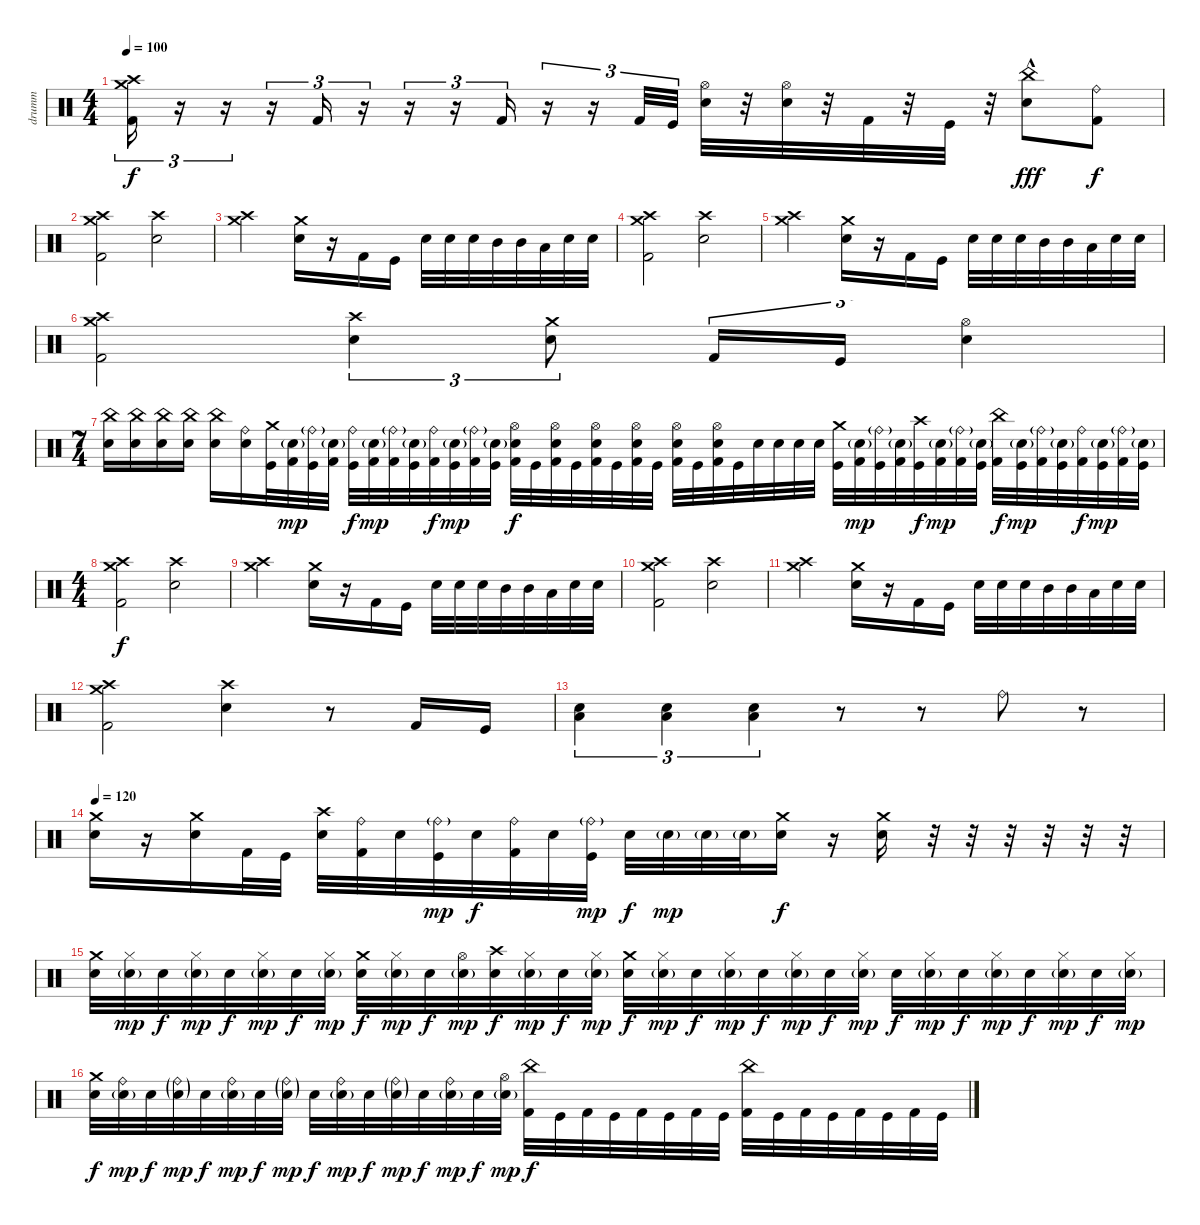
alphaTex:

\track ("drumm" "drumm") {instrument percussion}
\staff
\articulation defaults
\ts (4 4)
\tempo 100
\clef neutral
\ks c
("Kick (hit) 2" "Crash medium (hit)" "Crash high (hit)").16{tu (3 2) dy f} r.16{tu (3 2)} r.16{tu (3 2)} r.16{tu (3 2)} "Kick (hit) 2".16{tu (3 2)} r.16{tu (3 2)} r.16{tu (3 2)} r.16{tu (3 2)} "Kick (hit) 2".16{tu (3 2)} r.16{tu (3 2)} r.16{tu (3 2)} "Kick (hit) 2".32{tu (3 2)} "Kick (hit)".32{tu (3 2)} ("Electric Snare (hit)" "Hi-Hat (open)").32 r.32 ("Electric Snare (hit)" "Hi-Hat (open)").32 r.32 "Kick (hit) 2".32 r.32 "Kick (hit)".32 r.32 ("Electric Snare (hit)"{hac} "China (hit)").8{dy fff} ("Ride (bell)" "Kick (hit) 2").8{dy f} |
("Kick (hit) 2" "Crash medium (hit)" "Crash high (hit)").2 ("Electric Snare (hit)" "Crash high (hit)").2 |
("Crash medium (hit)" "Crash high (hit)").2 ("Electric Snare (hit)" "Crash medium (hit)").16 r.16 "Kick (hit) 2".16 "Kick (hit)".16 "Electric Snare (hit)".32 "Electric Snare (hit)".32 "Electric Snare (hit)".32 "Mid Tom (hit)".32 "Mid Tom (hit)".32 "Low Tom (hit)".32 "Electric Snare (hit)".32 "Electric Snare (hit)".32 |
("Kick (hit) 2" "Crash medium (hit)" "Crash high (hit)").2 ("Electric Snare (hit)" "Crash high (hit)").2 |
("Crash medium (hit)" "Crash high (hit)").2 ("Electric Snare (hit)" "Crash medium (hit)").16 r.16 "Kick (hit) 2".16 "Kick (hit)".16 "Electric Snare (hit)".32 "Electric Snare (hit)".32 "Electric Snare (hit)".32 "Mid Tom (hit)".32 "Mid Tom (hit)".32 "Low Tom (hit)".32 "Electric Snare (hit)".32 "Electric Snare (hit)".32 |
("Kick (hit) 2" "Crash medium (hit)" "Crash high (hit)").2 ("Electric Snare (hit)" "Crash high (hit)").4{tu (3 2)} ("Electric Snare (hit)" "Crash medium (hit)").8{tu (3 2)} "Kick (hit) 2".16{tu (3 2)} "Kick (hit)".16{tu (3 2)} ("Electric Snare (hit)" "Hi-Hat (open)").4{tu (3 2)} |
\ts (7 4)
("Electric Snare (hit)" "China (hit)").16 ("Electric Snare (hit)" "China (hit)").16 ("Electric Snare (hit)" "China (hit)").16 ("Electric Snare (hit)" "China (hit)").16 ("Electric Snare (hit)" "China (hit)").16 ("Electric Snare (hit)" "Ride (bell)").16 ("Kick (hit)" "Crash medium (hit)").32 ("Kick (hit) 2" "Electric Snare (hit)"{g}).32{dy mp} ("Kick (hit)" "Ride (bell)"{g}).32 ("Kick (hit) 2" "Electric Snare (hit)"{g}).32 ("Kick (hit)" "Ride (bell)").32{dy f} ("Kick (hit) 2" "Electric Snare (hit)"{g}).32{dy mp} ("Kick (hit) 2" "Ride (bell)"{g}).32 ("Kick (hit)" "Electric Snare (hit)"{g}).32 ("Kick (hit) 2" "Ride (bell)").32{dy f} ("Kick (hit)" "Electric Snare (hit)"{g}).32{dy mp} ("Kick (hit) 2" "Ride (bell)"{g}).32 ("Kick (hit)" "Electric Snare (hit)"{g}).32 ("Electric Snare (hit)" "Hi-Hat (open)" "Kick (hit) 2").32{dy f} "Kick (hit)".32 ("Electric Snare (hit)" "Hi-Hat (open)" "Kick (hit) 2").32 "Kick (hit)".32 ("Electric Snare (hit)" "Hi-Hat (open)" "Kick (hit) 2").32 "Kick (hit)".32 ("Electric Snare (hit)" "Hi-Hat (open)" "Kick (hit) 2").32 "Kick (hit)".32 ("Electric Snare (hit)" "Hi-Hat (open)" "Kick (hit) 2").32 "Kick (hit)".32 ("Electric Snare (hit)" "Hi-Hat (open)" "Kick (hit) 2").32 "Kick (hit)".32 "Electric Snare (hit)".32 "Electric Snare (hit)".32 "Electric Snare (hit)".32 "Electric Snare (hit)".32 ("Kick (hit)" "Crash medium (hit)").32 ("Kick (hit) 2" "Electric Snare (hit)"{g}).32{dy mp} ("Kick (hit)" "Ride (bell)"{g}).32 ("Kick (hit) 2" "Electric Snare (hit)"{g}).32 ("Kick (hit)" "Crash high (hit)").32{dy f} ("Kick (hit) 2" "Electric Snare (hit)"{g}).32{dy mp} ("Kick (hit) 2" "Ride (bell)"{g}).32 ("Kick (hit)" "Electric Snare (hit)"{g}).32 ("Kick (hit) 2" "China (hit)").32{dy f} ("Kick (hit)" "Electric Snare (hit)"{g}).32{dy mp} ("Kick (hit) 2" "Ride (bell)"{g}).32 ("Kick (hit)" "Electric Snare (hit)"{g}).32 ("Kick (hit) 2" "Ride (bell)").32{dy f} ("Kick (hit)" "Electric Snare (hit)"{g}).32{dy mp} ("Kick (hit) 2" "Ride (bell)"{g}).32 ("Kick (hit)" "Electric Snare (hit)"{g}).32 |
\ts (4 4)
("Kick (hit) 2" "Crash medium (hit)" "Crash high (hit)").2{dy f} ("Electric Snare (hit)" "Crash high (hit)").2 |
("Crash medium (hit)" "Crash high (hit)").2 ("Electric Snare (hit)" "Crash medium (hit)").16 r.16 "Kick (hit) 2".16 "Kick (hit)".16 "Electric Snare (hit)".32 "Electric Snare (hit)".32 "Electric Snare (hit)".32 "Mid Tom (hit)".32 "Mid Tom (hit)".32 "Low Tom (hit)".32 "Electric Snare (hit)".32 "Electric Snare (hit)".32 |
("Kick (hit) 2" "Crash medium (hit)" "Crash high (hit)").2 ("Electric Snare (hit)" "Crash high (hit)").2 |
("Crash medium (hit)" "Crash high (hit)").2 ("Electric Snare (hit)" "Crash medium (hit)").16 r.16 "Kick (hit) 2".16 "Kick (hit)".16 "Electric Snare (hit)".32 "Electric Snare (hit)".32 "Electric Snare (hit)".32 "Mid Tom (hit)".32 "Mid Tom (hit)".32 "Low Tom (hit)".32 "Electric Snare (hit)".32 "Electric Snare (hit)".32 |
("Kick (hit) 2" "Crash medium (hit)" "Crash high (hit)").2 ("Electric Snare (hit)" "Crash high (hit)").4 r.8 "Kick (hit) 2".16 "Kick (hit)".16 |
("Electric Snare (hit)" "Low Floor Tom (hit)").4{tu (3 2)} ("Electric Snare (hit)" "Low Floor Tom (hit)").4{tu (3 2)} ("Electric Snare (hit)" "Low Floor Tom (hit)").4{tu (3 2)} r.8 r.8 "Ride (bell)".8 r.8 |
\tempo 120
("Electric Snare (hit)" "Crash medium (hit)").16 r.16 ("Electric Snare (hit)" "Crash medium (hit)").16 "Kick (hit) 2".32 "Kick (hit)".32 ("Electric Snare (hit)" "Crash high (hit)").32 ("Kick (hit) 2" "Ride (bell)").32 "Electric Snare (hit)".32 ("Kick (hit)" "Ride (bell)"{g}).32{dy mp} "Electric Snare (hit)".32{dy f} ("Kick (hit) 2" "Ride (bell)").32 "Electric Snare (hit)".32 ("Kick (hit)" "Ride (bell)"{g}).32{dy mp} "Electric Snare (hit)".32{dy f} "Electric Snare (hit)"{g}.32{dy mp} "Electric Snare (hit)"{g}.32 "Electric Snare (hit)"{g}.32 ("Electric Snare (hit)" "Crash medium (hit)").16{dy f} r.16 ("Electric Snare (hit)" "Crash medium (hit)").16 r.32 r.32 r.32 r.32 r.32 r.32 |
("Electric Snare (hit)" "Crash medium (hit)").32 ("Electric Snare (hit)"{g} "Hi-Hat (closed)").32{dy mp} "Electric Snare (hit)".32{dy f} ("Electric Snare (hit)"{g} "Hi-Hat (closed)").32{dy mp} "Electric Snare (hit)".32{dy f} ("Electric Snare (hit)"{g} "Hi-Hat (closed)").32{dy mp} "Electric Snare (hit)".32{dy f} ("Electric Snare (hit)"{g} "Hi-Hat (closed)").32{dy mp} ("Electric Snare (hit)" "Crash medium (hit)").32{dy f} ("Electric Snare (hit)"{g} "Hi-Hat (closed)").32{dy mp} "Electric Snare (hit)".32{dy f} ("Electric Snare (hit)"{g} "Hi-Hat (open)").32{dy mp} ("Electric Snare (hit)" "Crash high (hit)").32{dy f} ("Electric Snare (hit)"{g} "Hi-Hat (closed)").32{dy mp} "Electric Snare (hit)".32{dy f} ("Electric Snare (hit)"{g} "Hi-Hat (closed)").32{dy mp} ("Electric Snare (hit)" "Crash medium (hit)").32{dy f} ("Electric Snare (hit)"{g} "Hi-Hat (closed)").32{dy mp} "Electric Snare (hit)".32{dy f} ("Electric Snare (hit)"{g} "Hi-Hat (closed)").32{dy mp} "Electric Snare (hit)".32{dy f} ("Electric Snare (hit)"{g} "Hi-Hat (closed)").32{dy mp} "Electric Snare (hit)".32{dy f} ("Electric Snare (hit)"{g} "Hi-Hat (closed)").32{dy mp} "Electric Snare (hit)".32{dy f} ("Electric Snare (hit)"{g} "Hi-Hat (closed)").32{dy mp} "Electric Snare (hit)".32{dy f} ("Electric Snare (hit)"{g} "Hi-Hat (closed)").32{dy mp} "Electric Snare (hit)".32{dy f} ("Electric Snare (hit)"{g} "Hi-Hat (closed)").32{dy mp} "Electric Snare (hit)".32{dy f} ("Electric Snare (hit)"{g} "Hi-Hat (closed)").32{dy mp} |
("Electric Snare (hit)" "Crash medium (hit)").32{dy f} ("Electric Snare (hit)"{g} "Ride (bell)").32{dy mp} "Electric Snare (hit)".32{dy f} ("Electric Snare (hit)"{g} "Ride (bell)"{g}).32{dy mp} "Electric Snare (hit)".32{dy f} ("Electric Snare (hit)"{g} "Ride (bell)").32{dy mp} "Electric Snare (hit)".32{dy f} ("Electric Snare (hit)"{g} "Ride (bell)"{g}).32{dy mp} "Electric Snare (hit)".32{dy f} ("Electric Snare (hit)"{g} "Ride (bell)").32{dy mp} "Electric Snare (hit)".32{dy f} ("Electric Snare (hit)"{g} "Ride (bell)"{g}).32{dy mp} "Electric Snare (hit)".32{dy f} ("Electric Snare (hit)"{g} "Ride (bell)").32{dy mp} "Electric Snare (hit)".32{dy f} ("Electric Snare (hit)"{g} "Hi-Hat (open)").32{dy mp} ("Kick (hit) 2" "China (hit)").32{dy f} "Kick (hit)".32 "Kick (hit) 2".32 "Kick (hit)".32 "Kick (hit) 2".32 "Kick (hit)".32 "Kick (hit) 2".32 "Kick (hit)".32 ("Kick (hit) 2" "China (hit)").32 "Kick (hit)".32 "Kick (hit) 2".32 "Kick (hit)".32 "Kick (hit) 2".32 "Kick (hit)".32 "Kick (hit) 2".32 "Kick (hit)".32
